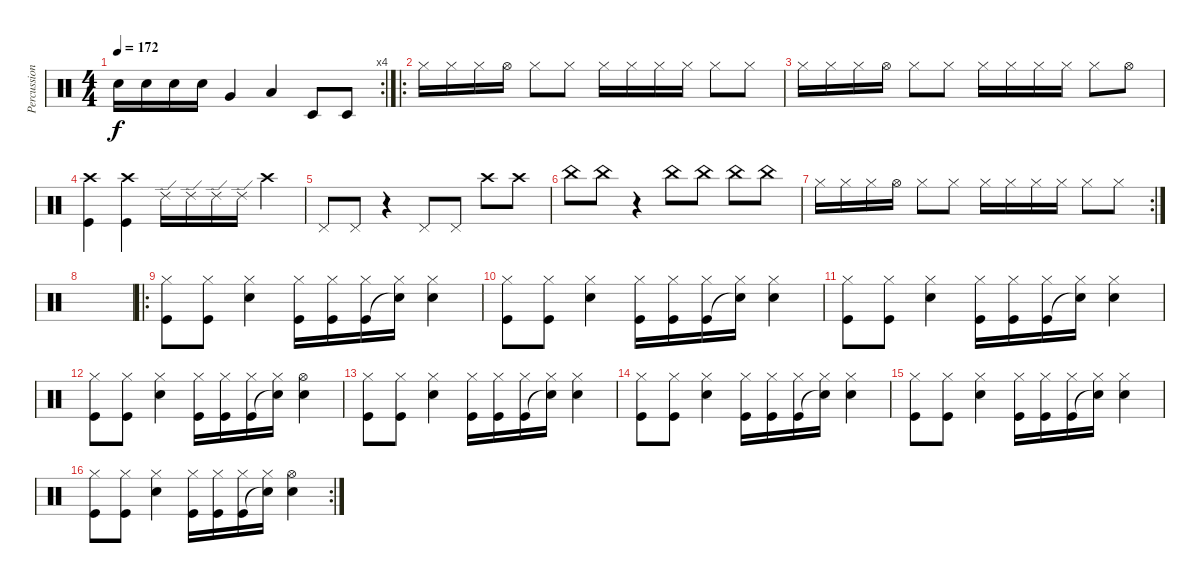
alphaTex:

\track ("Percussion" "Percussion") {instrument percussion}
\staff {score}
\articulation defaults
\rc 4
\ts (4 4)
\tempo 172
\clef neutral
\ks c "Snare (hit) 2".16{dy f} "Snare (hit) 2".16 "Snare (hit) 2".16 "Snare (hit) 2".16 "Very Low Tom (hit)".4 "Low Tom (hit)".4 "Timbale low (hit)".8 "Timbale low (hit)".8
|
\ro "Hi-Hat (closed)".16 "Hi-Hat (closed)".16 "Hi-Hat (closed)".16 "Hi-Hat (open)".16 "Hi-Hat (closed)".8 "Hi-Hat (closed)".8 "Hi-Hat (closed)".16 "Hi-Hat (closed)".16 "Hi-Hat (closed)".16 "Hi-Hat (closed)".16 "Hi-Hat (closed)".8 "Hi-Hat (closed)".8
|
"Hi-Hat (closed)".16 "Hi-Hat (closed)".16 "Hi-Hat (closed)".16 "Hi-Hat (open)".16 "Hi-Hat (closed)".8 "Hi-Hat (closed)".8 "Hi-Hat (closed)".16 "Hi-Hat (closed)".16 "Hi-Hat (closed)".16 "Hi-Hat (closed)".16 "Hi-Hat (closed)".8 "Hi-Hat (open)".8 |
("Kick (hit)" "Crash high (hit)").4 ("Kick (hit)" "Crash high (hit)").4 "Ride (edge) 2".16 "Ride (edge) 2".16 "Ride (edge) 2".16 "Ride (edge) 2".16 "Crash high (hit)".4 |
"Pedal Hi-Hat (hit)".8 "Pedal Hi-Hat (hit)".8 r.4 "Pedal Hi-Hat (hit)".8 "Pedal Hi-Hat (hit)".8 "Crash high (hit)".8 "Crash high (hit)".8 |
"China (hit)".8 "China (hit)".8 r.4 "China (hit)".8 "China (hit)".8 "China (hit)".8 "China (hit)".8 |
\rc 2 "Hi-Hat (closed)".16 "Hi-Hat (closed)".16 "Hi-Hat (closed)".16 "Hi-Hat (open)".16 "Hi-Hat (closed)".8 "Hi-Hat (closed)".8 "Hi-Hat (closed)".16 "Hi-Hat (closed)".16 "Hi-Hat (closed)".16 "Hi-Hat (closed)".16 "Hi-Hat (closed)".8 "Hi-Hat (closed)".8
|
|
\ro
("Hi-Hat (closed)" "Kick (hit)").8 ("Hi-Hat (closed)" "Kick (hit)").8 ("Hi-Hat (closed)" "Snare (hit) 2").4 ("Hi-Hat (closed)" "Kick (hit)").16 ("Hi-Hat (closed)" "Kick (hit)").16 ("Hi-Hat (closed)" "Kick (hit)").16 ("Hi-Hat (closed)" "Snare (hit)"{t}).16 ("Hi-Hat (closed)" "Snare (hit) 2").4 |
("Hi-Hat (closed)" "Kick (hit)").8 ("Hi-Hat (closed)" "Kick (hit)").8 ("Hi-Hat (closed)" "Snare (hit) 2").4 ("Hi-Hat (closed)" "Kick (hit)").16 ("Hi-Hat (closed)" "Kick (hit)").16 ("Hi-Hat (closed)" "Kick (hit)").16 ("Hi-Hat (closed)" "Snare (hit)"{t}).16 ("Hi-Hat (closed)" "Snare (hit) 2").4 |
("Hi-Hat (closed)" "Kick (hit)").8 ("Hi-Hat (closed)" "Kick (hit)").8 ("Hi-Hat (closed)" "Snare (hit) 2").4 ("Hi-Hat (closed)" "Kick (hit)").16 ("Hi-Hat (closed)" "Kick (hit)").16 ("Hi-Hat (closed)" "Kick (hit)").16 ("Hi-Hat (closed)" "Snare (hit)"{t}).16 ("Hi-Hat (closed)" "Snare (hit) 2").4 |
("Hi-Hat (closed)" "Kick (hit)").8 ("Hi-Hat (closed)" "Kick (hit)").8 ("Hi-Hat (closed)" "Snare (hit) 2").4 ("Hi-Hat (closed)" "Kick (hit)").16 ("Hi-Hat (closed)" "Kick (hit)").16 ("Hi-Hat (closed)" "Kick (hit)").16 ("Hi-Hat (closed)" "Snare (hit)"{t}).16 ("Hi-Hat (open)" "Snare (hit) 2").4 |
("Hi-Hat (closed)" "Kick (hit)").8 ("Hi-Hat (closed)" "Kick (hit)").8 ("Hi-Hat (closed)" "Snare (hit) 2").4 ("Hi-Hat (closed)" "Kick (hit)").16 ("Hi-Hat (closed)" "Kick (hit)").16 ("Hi-Hat (closed)" "Kick (hit)").16 ("Hi-Hat (closed)" "Snare (hit)"{t}).16 ("Hi-Hat (closed)" "Snare (hit) 2").4 |
("Hi-Hat (closed)" "Kick (hit)").8 ("Hi-Hat (closed)" "Kick (hit)").8 ("Hi-Hat (closed)" "Snare (hit) 2").4 ("Hi-Hat (closed)" "Kick (hit)").16 ("Hi-Hat (closed)" "Kick (hit)").16 ("Hi-Hat (closed)" "Kick (hit)").16 ("Hi-Hat (closed)" "Snare (hit)"{t}).16 ("Hi-Hat (closed)" "Snare (hit) 2").4 |
("Hi-Hat (closed)" "Kick (hit)").8 ("Hi-Hat (closed)" "Kick (hit)").8 ("Hi-Hat (closed)" "Snare (hit) 2").4 ("Hi-Hat (closed)" "Kick (hit)").16 ("Hi-Hat (closed)" "Kick (hit)").16 ("Hi-Hat (closed)" "Kick (hit)").16 ("Hi-Hat (closed)" "Snare (hit)"{t}).16 ("Hi-Hat (closed)" "Snare (hit) 2").4 |
\rc 2
("Hi-Hat (closed)" "Kick (hit)").8 ("Hi-Hat (closed)" "Kick (hit)").8 ("Hi-Hat (closed)" "Snare (hit) 2").4 ("Hi-Hat (closed)" "Kick (hit)").16 ("Hi-Hat (closed)" "Kick (hit)").16 ("Hi-Hat (closed)" "Kick (hit)").16 ("Hi-Hat (closed)" "Snare (hit)"{t}).16 ("Hi-Hat (open)" "Snare (hit) 2").4
